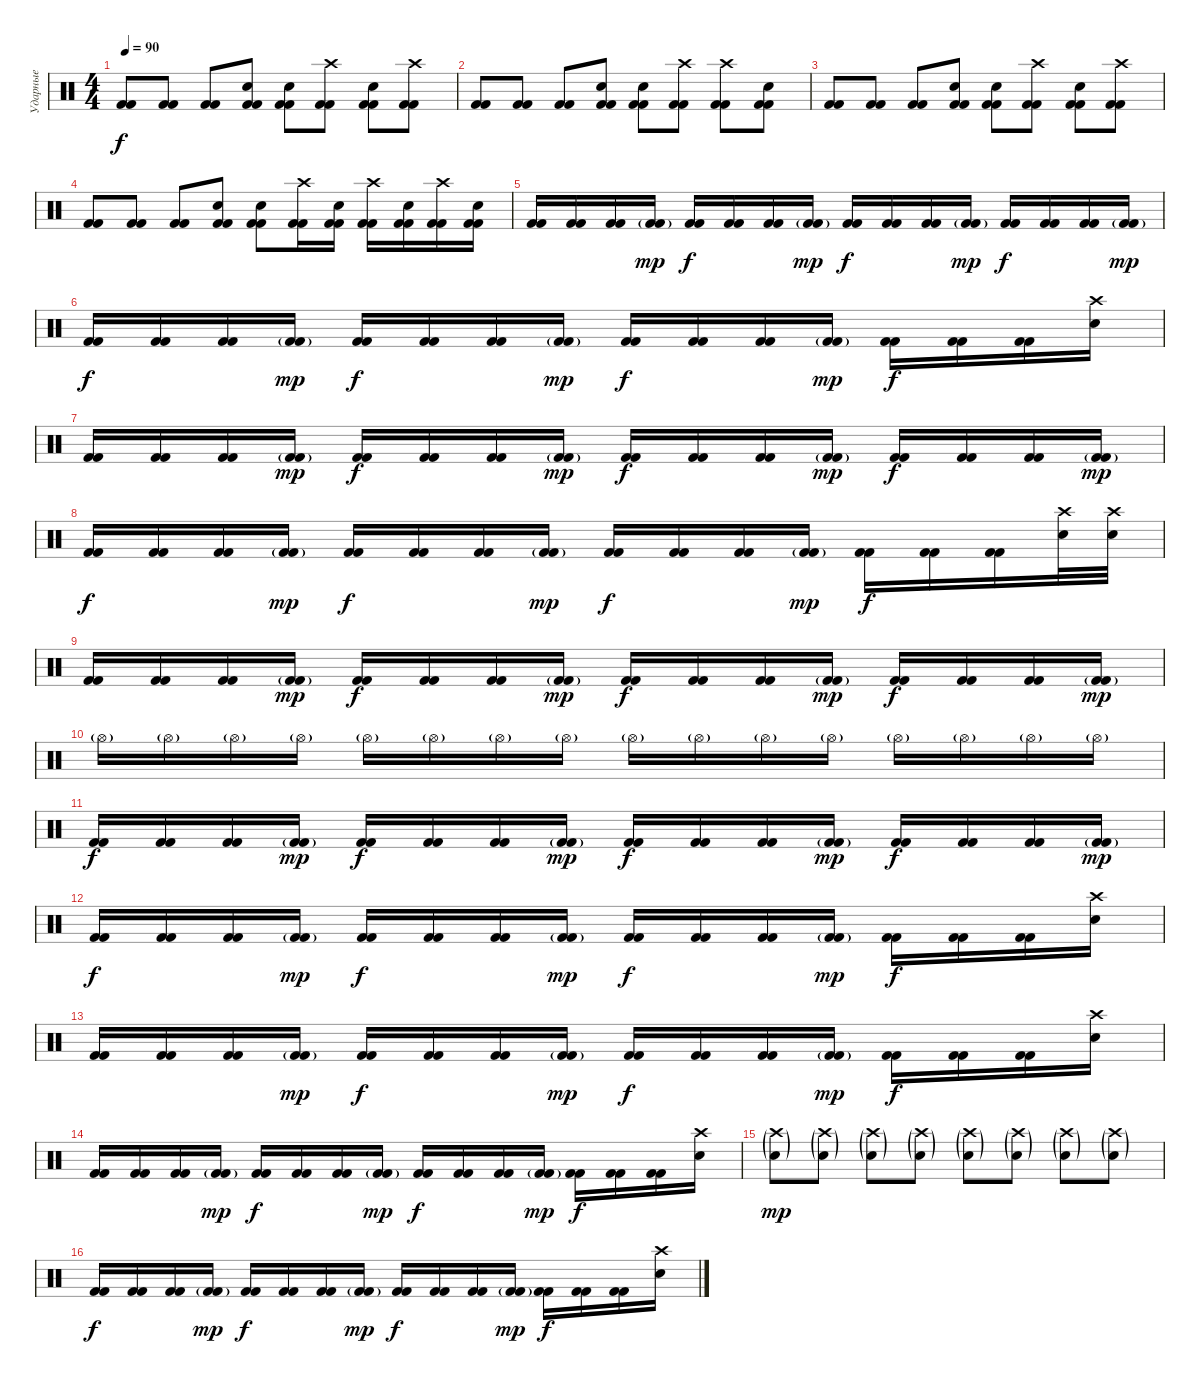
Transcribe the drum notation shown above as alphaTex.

\track ("Ударные" "Ударные") {instrument percussion}
\staff {score}
\articulation defaults
\ts (4 4)
\tempo 90
\clef neutral
\ks c
("Kick (hit) 2" "Kick (hit) 2").8{dy f} ("Kick (hit) 2" "Kick (hit) 2").8 ("Kick (hit) 2" "Kick (hit) 2").8 ("Electric Snare (hit)" "Kick (hit) 2" "Kick (hit) 2").8 ("Electric Snare (hit)" "Kick (hit) 2" "Kick (hit) 2").8 ("Crash high (hit)" "Kick (hit) 2" "Kick (hit) 2").8 ("Electric Snare (hit)" "Kick (hit) 2" "Kick (hit) 2").8 ("Crash high (hit)" "Kick (hit) 2" "Kick (hit) 2").8 |
("Kick (hit) 2" "Kick (hit) 2").8 ("Kick (hit) 2" "Kick (hit) 2").8 ("Kick (hit) 2" "Kick (hit) 2").8 ("Electric Snare (hit)" "Kick (hit) 2" "Kick (hit) 2").8 ("Electric Snare (hit)" "Kick (hit) 2" "Kick (hit) 2").8 ("Crash high (hit)" "Kick (hit) 2" "Kick (hit) 2").8 ("Crash high (hit)" "Kick (hit) 2" "Kick (hit) 2").8 ("Electric Snare (hit)" "Kick (hit) 2" "Kick (hit) 2").8 |
("Kick (hit) 2" "Kick (hit) 2").8 ("Kick (hit) 2" "Kick (hit) 2").8 ("Kick (hit) 2" "Kick (hit) 2").8 ("Electric Snare (hit)" "Kick (hit) 2" "Kick (hit) 2").8 ("Electric Snare (hit)" "Kick (hit) 2" "Kick (hit) 2").8 ("Crash high (hit)" "Kick (hit) 2" "Kick (hit) 2").8 ("Electric Snare (hit)" "Kick (hit) 2" "Kick (hit) 2").8 ("Crash high (hit)" "Kick (hit) 2" "Kick (hit) 2").8 |
("Kick (hit) 2" "Kick (hit) 2").8 ("Kick (hit) 2" "Kick (hit) 2").8 ("Kick (hit) 2" "Kick (hit) 2").8 ("Electric Snare (hit)" "Kick (hit) 2" "Kick (hit) 2").8 ("Electric Snare (hit)" "Kick (hit) 2" "Kick (hit) 2").8 ("Crash high (hit)" "Kick (hit) 2" "Kick (hit) 2").16 ("Electric Snare (hit)" "Kick (hit) 2" "Kick (hit) 2").16 ("Crash high (hit)" "Kick (hit) 2" "Kick (hit) 2").16 ("Electric Snare (hit)" "Kick (hit) 2" "Kick (hit) 2").16 ("Crash high (hit)" "Kick (hit) 2" "Kick (hit) 2").16 ("Electric Snare (hit)" "Kick (hit) 2" "Kick (hit) 2").16 |
("Kick (hit) 2" "Kick (hit) 2").16 ("Kick (hit) 2" "Kick (hit) 2").16 ("Kick (hit) 2" "Kick (hit) 2").16 ("Kick (hit) 2"{g} "Kick (hit) 2"{g}).16{dy mp} ("Kick (hit) 2" "Kick (hit) 2").16{dy f} ("Kick (hit) 2" "Kick (hit) 2").16 ("Kick (hit) 2" "Kick (hit) 2").16 ("Kick (hit) 2"{g} "Kick (hit) 2"{g}).16{dy mp} ("Kick (hit) 2" "Kick (hit) 2").16{dy f} ("Kick (hit) 2" "Kick (hit) 2").16 ("Kick (hit) 2" "Kick (hit) 2").16 ("Kick (hit) 2"{g} "Kick (hit) 2"{g}).16{dy mp} ("Kick (hit) 2" "Kick (hit) 2").16{dy f} ("Kick (hit) 2" "Kick (hit) 2").16 ("Kick (hit) 2" "Kick (hit) 2").16 ("Kick (hit) 2"{g} "Kick (hit) 2"{g}).16{dy mp} |
("Kick (hit) 2" "Kick (hit) 2").16{dy f} ("Kick (hit) 2" "Kick (hit) 2").16 ("Kick (hit) 2" "Kick (hit) 2").16 ("Kick (hit) 2"{g} "Kick (hit) 2"{g}).16{dy mp} ("Kick (hit) 2" "Kick (hit) 2").16{dy f} ("Kick (hit) 2" "Kick (hit) 2").16 ("Kick (hit) 2" "Kick (hit) 2").16 ("Kick (hit) 2"{g} "Kick (hit) 2"{g}).16{dy mp} ("Kick (hit) 2" "Kick (hit) 2").16{dy f} ("Kick (hit) 2" "Kick (hit) 2").16 ("Kick (hit) 2" "Kick (hit) 2").16 ("Kick (hit) 2"{g} "Kick (hit) 2"{g}).16{dy mp} ("Kick (hit) 2" "Kick (hit) 2").16{dy f} ("Kick (hit) 2" "Kick (hit) 2").16 ("Kick (hit) 2" "Kick (hit) 2").16 ("Electric Snare (hit)" "Crash high (hit)").16 |
("Kick (hit) 2" "Kick (hit) 2").16 ("Kick (hit) 2" "Kick (hit) 2").16 ("Kick (hit) 2" "Kick (hit) 2").16 ("Kick (hit) 2"{g} "Kick (hit) 2"{g}).16{dy mp} ("Kick (hit) 2" "Kick (hit) 2").16{dy f} ("Kick (hit) 2" "Kick (hit) 2").16 ("Kick (hit) 2" "Kick (hit) 2").16 ("Kick (hit) 2"{g} "Kick (hit) 2"{g}).16{dy mp} ("Kick (hit) 2" "Kick (hit) 2").16{dy f} ("Kick (hit) 2" "Kick (hit) 2").16 ("Kick (hit) 2" "Kick (hit) 2").16 ("Kick (hit) 2"{g} "Kick (hit) 2"{g}).16{dy mp} ("Kick (hit) 2" "Kick (hit) 2").16{dy f} ("Kick (hit) 2" "Kick (hit) 2").16 ("Kick (hit) 2" "Kick (hit) 2").16 ("Kick (hit) 2"{g} "Kick (hit) 2"{g}).16{dy mp} |
("Kick (hit) 2" "Kick (hit) 2").16{dy f} ("Kick (hit) 2" "Kick (hit) 2").16 ("Kick (hit) 2" "Kick (hit) 2").16 ("Kick (hit) 2"{g} "Kick (hit) 2"{g}).16{dy mp} ("Kick (hit) 2" "Kick (hit) 2").16{dy f} ("Kick (hit) 2" "Kick (hit) 2").16 ("Kick (hit) 2" "Kick (hit) 2").16 ("Kick (hit) 2"{g} "Kick (hit) 2"{g}).16{dy mp} ("Kick (hit) 2" "Kick (hit) 2").16{dy f} ("Kick (hit) 2" "Kick (hit) 2").16 ("Kick (hit) 2" "Kick (hit) 2").16 ("Kick (hit) 2"{g} "Kick (hit) 2"{g}).16{dy mp} ("Kick (hit) 2" "Kick (hit) 2").16{dy f} ("Kick (hit) 2" "Kick (hit) 2").16 ("Kick (hit) 2" "Kick (hit) 2").16 ("Electric Snare (hit)" "Crash high (hit)").32 ("Electric Snare (hit)" "Crash high (hit)").32 |
("Kick (hit) 2" "Kick (hit) 2").16 ("Kick (hit) 2" "Kick (hit) 2").16 ("Kick (hit) 2" "Kick (hit) 2").16 ("Kick (hit) 2"{g} "Kick (hit) 2"{g}).16{dy mp} ("Kick (hit) 2" "Kick (hit) 2").16{dy f} ("Kick (hit) 2" "Kick (hit) 2").16 ("Kick (hit) 2" "Kick (hit) 2").16 ("Kick (hit) 2"{g} "Kick (hit) 2"{g}).16{dy mp} ("Kick (hit) 2" "Kick (hit) 2").16{dy f} ("Kick (hit) 2" "Kick (hit) 2").16 ("Kick (hit) 2" "Kick (hit) 2").16 ("Kick (hit) 2"{g} "Kick (hit) 2"{g}).16{dy mp} ("Kick (hit) 2" "Kick (hit) 2").16{dy f} ("Kick (hit) 2" "Kick (hit) 2").16 ("Kick (hit) 2" "Kick (hit) 2").16 ("Kick (hit) 2"{g} "Kick (hit) 2"{g}).16{dy mp} |
"Hi-Hat (open)"{g}.16 "Hi-Hat (open)"{g}.16 "Hi-Hat (open)"{g}.16 "Hi-Hat (open)"{g}.16 "Hi-Hat (open)"{g}.16 "Hi-Hat (open)"{g}.16 "Hi-Hat (open)"{g}.16 "Hi-Hat (open)"{g}.16 "Hi-Hat (open)"{g}.16 "Hi-Hat (open)"{g}.16 "Hi-Hat (open)"{g}.16 "Hi-Hat (open)"{g}.16 "Hi-Hat (open)"{g}.16 "Hi-Hat (open)"{g}.16 "Hi-Hat (open)"{g}.16 "Hi-Hat (open)"{g}.16 |
("Kick (hit) 2" "Kick (hit) 2").16{dy f} ("Kick (hit) 2" "Kick (hit) 2").16 ("Kick (hit) 2" "Kick (hit) 2").16 ("Kick (hit) 2"{g} "Kick (hit) 2"{g}).16{dy mp} ("Kick (hit) 2" "Kick (hit) 2").16{dy f} ("Kick (hit) 2" "Kick (hit) 2").16 ("Kick (hit) 2" "Kick (hit) 2").16 ("Kick (hit) 2"{g} "Kick (hit) 2"{g}).16{dy mp} ("Kick (hit) 2" "Kick (hit) 2").16{dy f} ("Kick (hit) 2" "Kick (hit) 2").16 ("Kick (hit) 2" "Kick (hit) 2").16 ("Kick (hit) 2"{g} "Kick (hit) 2"{g}).16{dy mp} ("Kick (hit) 2" "Kick (hit) 2").16{dy f} ("Kick (hit) 2" "Kick (hit) 2").16 ("Kick (hit) 2" "Kick (hit) 2").16 ("Kick (hit) 2"{g} "Kick (hit) 2"{g}).16{dy mp} |
("Kick (hit) 2" "Kick (hit) 2").16{dy f} ("Kick (hit) 2" "Kick (hit) 2").16 ("Kick (hit) 2" "Kick (hit) 2").16 ("Kick (hit) 2"{g} "Kick (hit) 2"{g}).16{dy mp} ("Kick (hit) 2" "Kick (hit) 2").16{dy f} ("Kick (hit) 2" "Kick (hit) 2").16 ("Kick (hit) 2" "Kick (hit) 2").16 ("Kick (hit) 2"{g} "Kick (hit) 2"{g}).16{dy mp} ("Kick (hit) 2" "Kick (hit) 2").16{dy f} ("Kick (hit) 2" "Kick (hit) 2").16 ("Kick (hit) 2" "Kick (hit) 2").16 ("Kick (hit) 2"{g} "Kick (hit) 2"{g}).16{dy mp} ("Kick (hit) 2" "Kick (hit) 2").16{dy f} ("Kick (hit) 2" "Kick (hit) 2").16 ("Kick (hit) 2" "Kick (hit) 2").16 ("Electric Snare (hit)" "Crash high (hit)").16 |
("Kick (hit) 2" "Kick (hit) 2").16 ("Kick (hit) 2" "Kick (hit) 2").16 ("Kick (hit) 2" "Kick (hit) 2").16 ("Kick (hit) 2"{g} "Kick (hit) 2"{g}).16{dy mp} ("Kick (hit) 2" "Kick (hit) 2").16{dy f} ("Kick (hit) 2" "Kick (hit) 2").16 ("Kick (hit) 2" "Kick (hit) 2").16 ("Kick (hit) 2"{g} "Kick (hit) 2"{g}).16{dy mp} ("Kick (hit) 2" "Kick (hit) 2").16{dy f} ("Kick (hit) 2" "Kick (hit) 2").16 ("Kick (hit) 2" "Kick (hit) 2").16 ("Kick (hit) 2"{g} "Kick (hit) 2"{g}).16{dy mp} ("Kick (hit) 2" "Kick (hit) 2").16{dy f} ("Kick (hit) 2" "Kick (hit) 2").16 ("Kick (hit) 2" "Kick (hit) 2").16 ("Electric Snare (hit)" "Crash high (hit)").16 |
("Kick (hit) 2" "Kick (hit) 2").16 ("Kick (hit) 2" "Kick (hit) 2").16 ("Kick (hit) 2" "Kick (hit) 2").16 ("Kick (hit) 2"{g} "Kick (hit) 2"{g}).16{dy mp} ("Kick (hit) 2" "Kick (hit) 2").16{dy f} ("Kick (hit) 2" "Kick (hit) 2").16 ("Kick (hit) 2" "Kick (hit) 2").16 ("Kick (hit) 2"{g} "Kick (hit) 2"{g}).16{dy mp} ("Kick (hit) 2" "Kick (hit) 2").16{dy f} ("Kick (hit) 2" "Kick (hit) 2").16 ("Kick (hit) 2" "Kick (hit) 2").16 ("Kick (hit) 2"{g} "Kick (hit) 2"{g}).16{dy mp} ("Kick (hit) 2" "Kick (hit) 2").16{dy f} ("Kick (hit) 2" "Kick (hit) 2").16 ("Kick (hit) 2" "Kick (hit) 2").16 ("Electric Snare (hit)" "Crash high (hit)").16 |
("Electric Snare (hit)"{g} "Crash high (hit)"{g}).8{dy mp} ("Electric Snare (hit)"{g} "Crash high (hit)"{g}).8 ("Electric Snare (hit)"{g} "Crash high (hit)"{g}).8 ("Electric Snare (hit)"{g} "Crash high (hit)"{g}).8 ("Electric Snare (hit)"{g} "Crash high (hit)"{g}).8 ("Electric Snare (hit)"{g} "Crash high (hit)"{g}).8 ("Electric Snare (hit)"{g} "Crash high (hit)"{g}).8 ("Electric Snare (hit)"{g} "Crash high (hit)"{g}).8 |
("Kick (hit) 2" "Kick (hit) 2").16{dy f} ("Kick (hit) 2" "Kick (hit) 2").16 ("Kick (hit) 2" "Kick (hit) 2").16 ("Kick (hit) 2"{g} "Kick (hit) 2"{g}).16{dy mp} ("Kick (hit) 2" "Kick (hit) 2").16{dy f} ("Kick (hit) 2" "Kick (hit) 2").16 ("Kick (hit) 2" "Kick (hit) 2").16 ("Kick (hit) 2"{g} "Kick (hit) 2"{g}).16{dy mp} ("Kick (hit) 2" "Kick (hit) 2").16{dy f} ("Kick (hit) 2" "Kick (hit) 2").16 ("Kick (hit) 2" "Kick (hit) 2").16 ("Kick (hit) 2"{g} "Kick (hit) 2"{g}).16{dy mp} ("Kick (hit) 2" "Kick (hit) 2").16{dy f} ("Kick (hit) 2" "Kick (hit) 2").16 ("Kick (hit) 2" "Kick (hit) 2").16 ("Electric Snare (hit)" "Crash high (hit)").16
